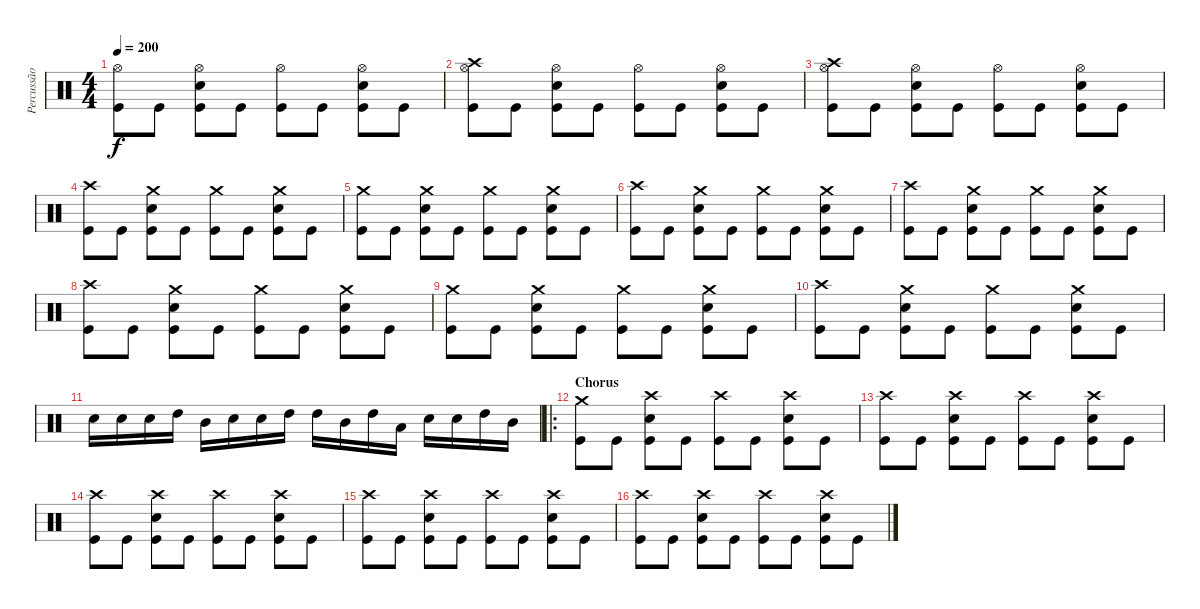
\track ("Percussão" "Percussão") {instrument percussion}
\staff {score}
\articulation defaults
\ts (4 4)
\tempo 200
\clef neutral
\ks c
("Hi-Hat (open)" "Kick (hit)").8{dy f} "Kick (hit)".8 ("Hi-Hat (open)" "Electric Snare (hit)" "Kick (hit)").8 "Kick (hit)".8 ("Hi-Hat (open)" "Kick (hit)").8 "Kick (hit)".8 ("Hi-Hat (open)" "Electric Snare (hit)" "Kick (hit)").8 "Kick (hit)".8 |
("Crash high (hit)" "Hi-Hat (open)" "Kick (hit)").8 "Kick (hit)".8 ("Hi-Hat (open)" "Electric Snare (hit)" "Kick (hit)").8 "Kick (hit)".8 ("Hi-Hat (open)" "Kick (hit)").8 "Kick (hit)".8 ("Hi-Hat (open)" "Electric Snare (hit)" "Kick (hit)").8 "Kick (hit)".8 |
("Crash high (hit)" "Hi-Hat (open)" "Kick (hit)").8 "Kick (hit)".8 ("Hi-Hat (open)" "Electric Snare (hit)" "Kick (hit)").8 "Kick (hit)".8 ("Hi-Hat (open)" "Kick (hit)").8 "Kick (hit)".8 ("Hi-Hat (open)" "Electric Snare (hit)" "Kick (hit)").8 "Kick (hit)".8 |
("Crash high (hit)" "Kick (hit)").8 "Kick (hit)".8 ("Crash medium (hit)" "Electric Snare (hit)" "Kick (hit)").8 "Kick (hit)".8 ("Crash medium (hit)" "Kick (hit)").8 "Kick (hit)".8 ("Crash medium (hit)" "Electric Snare (hit)" "Kick (hit)").8 "Kick (hit)".8 |
("Crash medium (hit)" "Kick (hit)").8 "Kick (hit)".8 ("Crash medium (hit)" "Electric Snare (hit)" "Kick (hit)").8 "Kick (hit)".8 ("Crash medium (hit)" "Kick (hit)").8 "Kick (hit)".8 ("Crash medium (hit)" "Electric Snare (hit)" "Kick (hit)").8 "Kick (hit)".8 |
("Crash high (hit)" "Kick (hit)").8 "Kick (hit)".8 ("Crash medium (hit)" "Electric Snare (hit)" "Kick (hit)").8 "Kick (hit)".8 ("Crash medium (hit)" "Kick (hit)").8 "Kick (hit)".8 ("Crash medium (hit)" "Electric Snare (hit)" "Kick (hit)").8 "Kick (hit)".8 |
("Crash high (hit)" "Kick (hit)").8 "Kick (hit)".8 ("Crash medium (hit)" "Electric Snare (hit)" "Kick (hit)").8 "Kick (hit)".8 ("Crash medium (hit)" "Kick (hit)").8 "Kick (hit)".8 ("Crash medium (hit)" "Electric Snare (hit)" "Kick (hit)").8 "Kick (hit)".8 |
("Crash high (hit)" "Kick (hit)").8 "Kick (hit)".8 ("Crash medium (hit)" "Electric Snare (hit)" "Kick (hit)").8 "Kick (hit)".8 ("Crash medium (hit)" "Kick (hit)").8 "Kick (hit)".8 ("Crash medium (hit)" "Electric Snare (hit)" "Kick (hit)").8 "Kick (hit)".8 |
("Crash medium (hit)" "Kick (hit)").8 "Kick (hit)".8 ("Crash medium (hit)" "Electric Snare (hit)" "Kick (hit)").8 "Kick (hit)".8 ("Crash medium (hit)" "Kick (hit)").8 "Kick (hit)".8 ("Crash medium (hit)" "Electric Snare (hit)" "Kick (hit)").8 "Kick (hit)".8 |
("Crash high (hit)" "Kick (hit)").8 "Kick (hit)".8 ("Crash medium (hit)" "Electric Snare (hit)" "Kick (hit)").8 "Kick (hit)".8 ("Crash medium (hit)" "Kick (hit)").8 "Kick (hit)".8 ("Crash medium (hit)" "Electric Snare (hit)" "Kick (hit)").8 "Kick (hit)".8 |
"Electric Snare (hit)".16 "Electric Snare (hit)".16 "Electric Snare (hit)".16 "High Tom (hit)".16 "Mid Tom (hit)".16 "Electric Snare (hit)".16 "Electric Snare (hit)".16 "High Tom (hit)".16 "High Tom (hit)".16 "Mid Tom (hit)".16 "High Tom (hit)".16 "Low Tom (hit)".16 "Electric Snare (hit)".16 "Electric Snare (hit)".16 "High Tom (hit)".16 "Mid Tom (hit)".16 |
\ro
\section ("" "Chorus")
("Crash medium (hit)" "Kick (hit)").8 "Kick (hit)".8 ("Crash high (hit)" "Electric Snare (hit)" "Kick (hit)").8 "Kick (hit)".8 ("Crash high (hit)" "Kick (hit)").8 "Kick (hit)".8 ("Crash high (hit)" "Electric Snare (hit)" "Kick (hit)").8 "Kick (hit)".8 |
("Crash high (hit)" "Kick (hit)").8 "Kick (hit)".8 ("Crash high (hit)" "Electric Snare (hit)" "Kick (hit)").8 "Kick (hit)".8 ("Crash high (hit)" "Kick (hit)").8 "Kick (hit)".8 ("Crash high (hit)" "Electric Snare (hit)" "Kick (hit)").8 "Kick (hit)".8 |
("Crash high (hit)" "Kick (hit)").8 "Kick (hit)".8 ("Crash high (hit)" "Electric Snare (hit)" "Kick (hit)").8 "Kick (hit)".8 ("Crash high (hit)" "Kick (hit)").8 "Kick (hit)".8 ("Crash high (hit)" "Electric Snare (hit)" "Kick (hit)").8 "Kick (hit)".8 |
("Crash high (hit)" "Kick (hit)").8 "Kick (hit)".8 ("Crash high (hit)" "Electric Snare (hit)" "Kick (hit)").8 "Kick (hit)".8 ("Crash high (hit)" "Kick (hit)").8 "Kick (hit)".8 ("Crash high (hit)" "Electric Snare (hit)" "Kick (hit)").8 "Kick (hit)".8 |
("Crash high (hit)" "Kick (hit)").8 "Kick (hit)".8 ("Crash high (hit)" "Electric Snare (hit)" "Kick (hit)").8 "Kick (hit)".8 ("Crash high (hit)" "Kick (hit)").8 "Kick (hit)".8 ("Crash high (hit)" "Electric Snare (hit)" "Kick (hit)").8 "Kick (hit)".8
